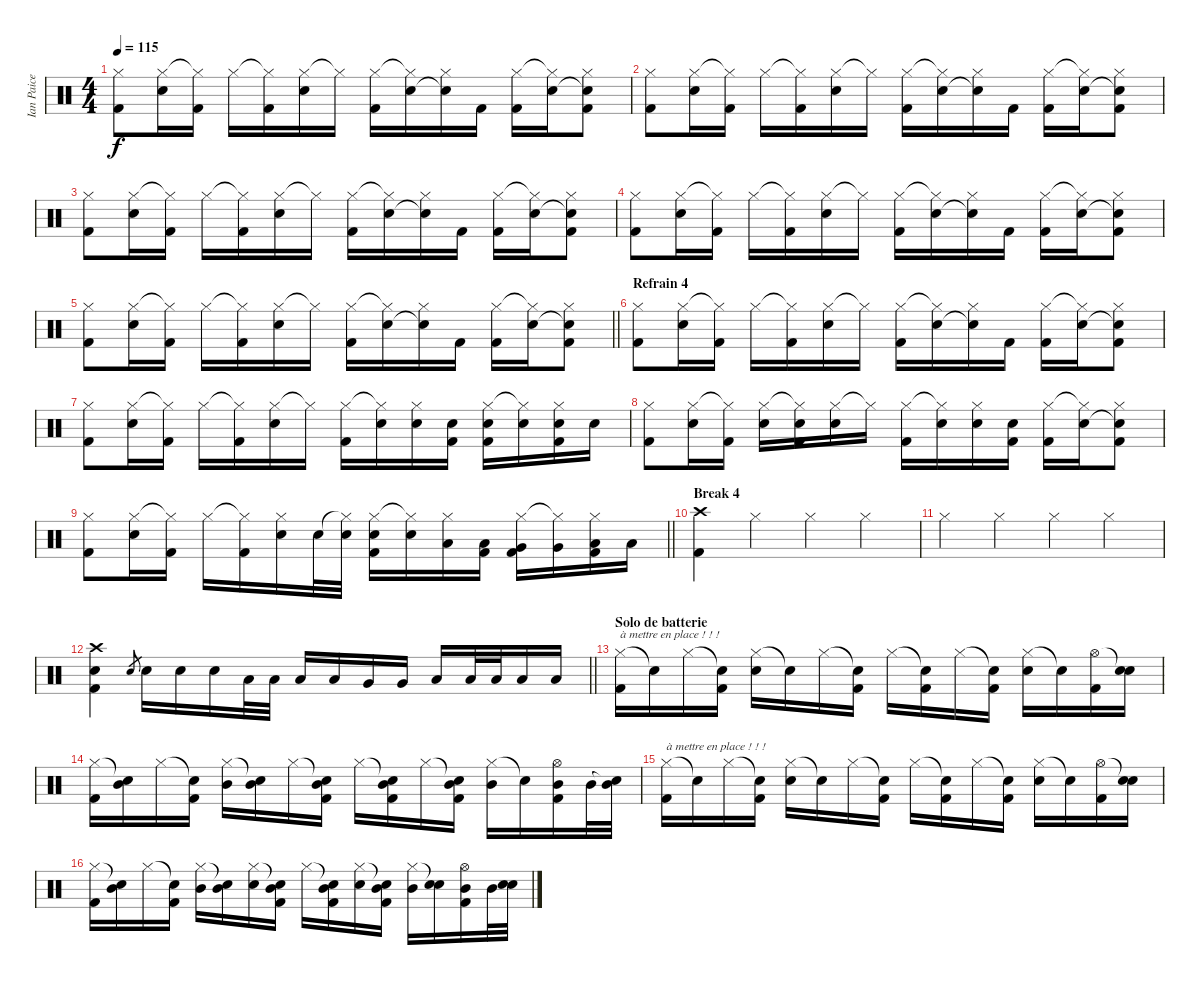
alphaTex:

\track ("Ian Paice" "Ian Paice") {instrument percussion}
\staff {score}
\articulation defaults
\ts (4 4)
\tempo 115
\clef neutral
\ks c
("Hi-Hat (closed)" "Kick (hit) 2").8{dy f} ("Hi-Hat (closed)" "Snare (hit) 2").16 ("Hi-Hat (closed)"{t} "Kick (hit) 2").16 "Hi-Hat (closed)".16 ("Hi-Hat (closed)"{t} "Kick (hit) 2").16 ("Hi-Hat (closed)" "Snare (hit) 2").16 "Hi-Hat (closed)"{t}.16 ("Hi-Hat (closed)" "Kick (hit) 2").16 ("Hi-Hat (closed)"{t} "Snare (hit) 2").16 ("Hi-Hat (closed)" "Snare (hit) 2"{t}).16 "Kick (hit) 2".16 ("Hi-Hat (closed)" "Kick (hit) 2").16 ("Hi-Hat (closed)"{t} "Snare (hit) 2").16 ("Hi-Hat (closed)" "Snare (hit) 2"{t} "Kick (hit) 2").8 |
("Hi-Hat (closed)" "Kick (hit) 2").8 ("Hi-Hat (closed)" "Snare (hit) 2").16 ("Hi-Hat (closed)"{t} "Kick (hit) 2").16 "Hi-Hat (closed)".16 ("Hi-Hat (closed)"{t} "Kick (hit) 2").16 ("Hi-Hat (closed)" "Snare (hit) 2").16 "Hi-Hat (closed)"{t}.16 ("Hi-Hat (closed)" "Kick (hit) 2").16 ("Hi-Hat (closed)"{t} "Snare (hit) 2").16 ("Hi-Hat (closed)" "Snare (hit) 2"{t}).16 "Kick (hit) 2".16 ("Hi-Hat (closed)" "Kick (hit) 2").16 ("Hi-Hat (closed)"{t} "Snare (hit) 2").16 ("Hi-Hat (closed)" "Snare (hit) 2"{t} "Kick (hit) 2").8 |
("Hi-Hat (closed)" "Kick (hit) 2").8 ("Hi-Hat (closed)" "Snare (hit) 2").16 ("Hi-Hat (closed)"{t} "Kick (hit) 2").16 "Hi-Hat (closed)".16 ("Hi-Hat (closed)"{t} "Kick (hit) 2").16 ("Hi-Hat (closed)" "Snare (hit) 2").16 "Hi-Hat (closed)"{t}.16 ("Hi-Hat (closed)" "Kick (hit) 2").16 ("Hi-Hat (closed)"{t} "Snare (hit) 2").16 ("Hi-Hat (closed)" "Snare (hit) 2"{t}).16 "Kick (hit) 2".16 ("Hi-Hat (closed)" "Kick (hit) 2").16 ("Hi-Hat (closed)"{t} "Snare (hit) 2").16 ("Hi-Hat (closed)" "Snare (hit) 2"{t} "Kick (hit) 2").8 |
("Hi-Hat (closed)" "Kick (hit) 2").8 ("Hi-Hat (closed)" "Snare (hit) 2").16 ("Hi-Hat (closed)"{t} "Kick (hit) 2").16 "Hi-Hat (closed)".16 ("Hi-Hat (closed)"{t} "Kick (hit) 2").16 ("Hi-Hat (closed)" "Snare (hit) 2").16 "Hi-Hat (closed)"{t}.16 ("Hi-Hat (closed)" "Kick (hit) 2").16 ("Hi-Hat (closed)"{t} "Snare (hit) 2").16 ("Hi-Hat (closed)" "Snare (hit) 2"{t}).16 "Kick (hit) 2".16 ("Hi-Hat (closed)" "Kick (hit) 2").16 ("Hi-Hat (closed)"{t} "Snare (hit) 2").16 ("Hi-Hat (closed)" "Snare (hit) 2"{t} "Kick (hit) 2").8 |
\barLineRight lightlight
("Hi-Hat (closed)" "Kick (hit) 2").8 ("Hi-Hat (closed)" "Snare (hit) 2").16 ("Hi-Hat (closed)"{t} "Kick (hit) 2").16 "Hi-Hat (closed)".16 ("Hi-Hat (closed)"{t} "Kick (hit) 2").16 ("Hi-Hat (closed)" "Snare (hit) 2").16 "Hi-Hat (closed)"{t}.16 ("Hi-Hat (closed)" "Kick (hit) 2").16 ("Hi-Hat (closed)"{t} "Snare (hit) 2").16 ("Hi-Hat (closed)" "Snare (hit) 2"{t}).16 "Kick (hit) 2".16 ("Hi-Hat (closed)" "Kick (hit) 2").16 ("Hi-Hat (closed)"{t} "Snare (hit) 2").16 ("Hi-Hat (closed)" "Snare (hit) 2"{t} "Kick (hit) 2").8 |
\section ("" "Refrain 4")
("Hi-Hat (closed)" "Kick (hit) 2").8 ("Hi-Hat (closed)" "Snare (hit) 2").16 ("Hi-Hat (closed)"{t} "Kick (hit) 2").16 "Hi-Hat (closed)".16 ("Hi-Hat (closed)"{t} "Kick (hit) 2").16 ("Hi-Hat (closed)" "Snare (hit) 2").16 "Hi-Hat (closed)"{t}.16 ("Hi-Hat (closed)" "Kick (hit) 2").16 ("Hi-Hat (closed)"{t} "Snare (hit) 2").16 ("Hi-Hat (closed)" "Snare (hit) 2"{t}).16 "Kick (hit) 2".16 ("Hi-Hat (closed)" "Kick (hit) 2").16 ("Hi-Hat (closed)"{t} "Snare (hit) 2").16 ("Hi-Hat (closed)" "Snare (hit) 2"{t} "Kick (hit) 2").8 |
("Hi-Hat (closed)" "Kick (hit) 2").8 ("Hi-Hat (closed)" "Snare (hit) 2").16 ("Hi-Hat (closed)"{t} "Kick (hit) 2").16 "Hi-Hat (closed)".16 ("Hi-Hat (closed)"{t} "Kick (hit) 2").16 ("Hi-Hat (closed)" "Snare (hit) 2").16 "Hi-Hat (closed)"{t}.16 ("Hi-Hat (closed)" "Kick (hit) 2").16 ("Hi-Hat (closed)"{t} "Snare (hit) 2").16 ("Hi-Hat (closed)" "Snare (hit) 2").16 ("Snare (hit) 2" "Kick (hit) 2").16 ("Hi-Hat (closed)" "Snare (hit) 2" "Kick (hit) 2").16 ("Hi-Hat (closed)"{t} "Snare (hit) 2").16 ("Hi-Hat (closed)" "Snare (hit) 2" "Kick (hit) 2").16 "Snare (hit) 2".16 |
("Hi-Hat (closed)" "Kick (hit) 2").8 ("Hi-Hat (closed)" "Snare (hit) 2").16 ("Hi-Hat (closed)"{t} "Kick (hit) 2").16 ("Hi-Hat (closed)" "Snare (hit) 2").16 ("Hi-Hat (closed)"{t} "Snare (hit) 2" "Kick (hit) 2").16 ("Hi-Hat (closed)" "Snare (hit) 2").16 "Hi-Hat (closed)"{t}.16 ("Hi-Hat (closed)" "Kick (hit) 2").16 ("Hi-Hat (closed)"{t} "Snare (hit) 2").16 ("Hi-Hat (closed)" "Snare (hit) 2").16 ("Snare (hit) 2" "Kick (hit) 2").16 ("Hi-Hat (closed)" "Kick (hit) 2").16 ("Hi-Hat (closed)"{t} "Snare (hit) 2").16 ("Hi-Hat (closed)" "Snare (hit) 2"{t} "Kick (hit) 2").8 |
\barLineRight lightlight
("Hi-Hat (closed)" "Kick (hit) 2").8 ("Hi-Hat (closed)" "Snare (hit) 2").16 ("Hi-Hat (closed)"{t} "Kick (hit) 2").16 "Hi-Hat (closed)".16 ("Hi-Hat (closed)"{t} "Kick (hit) 2").16 ("Hi-Hat (closed)" "Snare (hit) 2").16 "Snare (hit) 2".32 ("Hi-Hat (closed)"{t} "Snare (hit) 2").32 ("Hi-Hat (closed)" "Snare (hit) 2" "Kick (hit) 2").16 ("Hi-Hat (closed)"{t} "Snare (hit) 2").16 ("Hi-Hat (closed)" "Low Tom (hit)").16 ("Low Tom (hit)" "Kick (hit) 2").16 ("Hi-Hat (closed)" "Very Low Tom (hit)" "Kick (hit) 2").16 ("Hi-Hat (closed)"{t} "Very Low Tom (hit)").16 ("Hi-Hat (closed)" "Low Floor Tom (hit)" "Kick (hit) 2").16 "Low Floor Tom (hit)".16 |
\section ("" "Break 4")
("Crash high (hit)" "Kick (hit) 2").4 "Hi-Hat (closed)".4 "Hi-Hat (closed)".4 "Hi-Hat (closed)".4 |
"Hi-Hat (closed)".4 "Hi-Hat (closed)".4 "Hi-Hat (closed)".4 "Hi-Hat (closed)".4 |
\barLineRight lightlight
("Crash high (hit)" "Snare (hit) 2" "Kick (hit) 2").4 "Snare (hit) 2".8{gr} "Snare (hit) 2".16 "Snare (hit) 2".16 "Snare (hit) 2".16 "Low Tom (hit)".32 "Low Tom (hit)".32 "Low Tom (hit)".16 "Low Tom (hit)".16 "Very Low Tom (hit)".16 "Very Low Tom (hit)".16 "Low Floor Tom (hit)".16 "Low Floor Tom (hit)".32 "Low Floor Tom (hit)".32 "Low Floor Tom (hit)".16 "Low Floor Tom (hit)".16 |
\section ("" "Solo de batterie")
("Hi-Hat (closed)" "Kick (hit) 2").16{txt "à mettre en place ! ! !"} "Snare (hit)"{t}.16 "Hi-Hat (closed)".16 ("Snare (hit)"{t} "Kick (hit) 2").16 ("Hi-Hat (closed)" "Snare (hit) 2").16 "Snare (hit)"{t}.16 "Hi-Hat (closed)".16 ("Snare (hit)"{t} "Kick (hit) 2").16 "Hi-Hat (closed)".16 ("Snare (hit)"{t} "Kick (hit) 2").16 "Hi-Hat (closed)".16 ("Snare (hit)"{t} "Kick (hit) 2").16 ("Hi-Hat (closed)" "Snare (hit) 2").16 "Snare (hit)"{t}.16 ("Hi-Hat (open)" "Kick (hit) 2").16 ("Snare (hit)"{t} "Snare (hit) 2").16 |
("Hi-Hat (closed)" "Kick (hit) 2").16 ("Snare (hit)"{t} "Mid Tom (hit)").16 "Hi-Hat (closed)".16 ("Snare (hit)"{t} "Kick (hit) 2").16 ("Hi-Hat (closed)" "Mid Tom (hit)").16 ("Snare (hit)"{t} "Mid Tom (hit)").16 "Hi-Hat (closed)".16 ("Snare (hit)"{t} "Mid Tom (hit)" "Kick (hit) 2").16 "Hi-Hat (closed)".16 ("Snare (hit)"{t} "Mid Tom (hit)" "Kick (hit) 2").16 "Hi-Hat (closed)".16 ("Snare (hit)"{t} "Mid Tom (hit)" "Kick (hit) 2").16 ("Hi-Hat (closed)" "Mid Tom (hit)").16 "Snare (hit)"{t}.16 ("Hi-Hat (open)" "Mid Tom (hit)" "Kick (hit) 2").16 "Mid Tom (hit)".32 ("Snare (hit)"{t} "Mid Tom (hit)").32 |
("Hi-Hat (closed)" "Kick (hit) 2").16{txt "à mettre en place ! ! !"} "Snare (hit)"{t}.16 "Hi-Hat (closed)".16 ("Snare (hit)"{t} "Kick (hit) 2").16 ("Hi-Hat (closed)" "Snare (hit) 2").16 "Snare (hit)"{t}.16 "Hi-Hat (closed)".16 ("Snare (hit)"{t} "Kick (hit) 2").16 "Hi-Hat (closed)".16 ("Snare (hit)"{t} "Kick (hit) 2").16 "Hi-Hat (closed)".16 ("Snare (hit)"{t} "Kick (hit) 2").16 ("Hi-Hat (closed)" "Snare (hit) 2").16 "Snare (hit)"{t}.16 ("Hi-Hat (open)" "Kick (hit) 2").16 ("Snare (hit)"{t} "Snare (hit) 2").16 |
("Hi-Hat (closed)" "Kick (hit) 2").16 ("Snare (hit)"{t} "Mid Tom (hit)").16 "Hi-Hat (closed)".16 ("Snare (hit)"{t} "Kick (hit) 2").16 ("Hi-Hat (closed)" "Mid Tom (hit)").16 ("Snare (hit)"{t} "Mid Tom (hit)").16 ("Hi-Hat (closed)" "Snare (hit) 2").16 ("Snare (hit)"{t} "Mid Tom (hit)" "Kick (hit) 2").16 "Hi-Hat (closed)".16 ("Snare (hit)"{t} "Mid Tom (hit)" "Kick (hit) 2").16 ("Hi-Hat (closed)" "Snare (hit) 2").16 ("Snare (hit)"{t} "Mid Tom (hit)" "Kick (hit) 2").16 ("Hi-Hat (closed)" "Mid Tom (hit)").16 ("Snare (hit)"{t} "Snare (hit) 2").16 ("Hi-Hat (open)" "Mid Tom (hit)" "Kick (hit) 2").16 "Mid Tom (hit)".32 ("Snare (hit)"{t} "Snare (hit) 2").32
